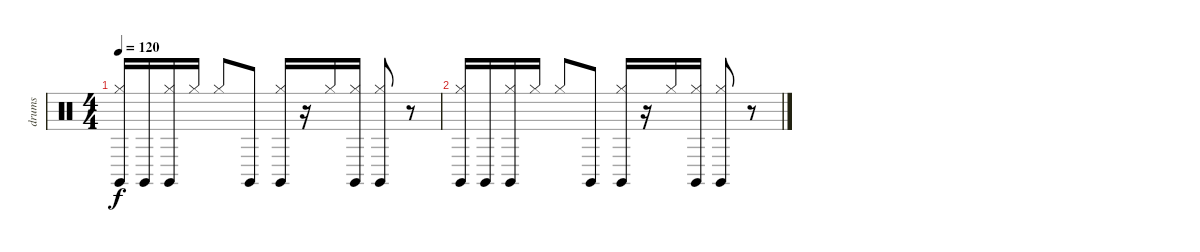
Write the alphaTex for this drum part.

\track ("drums" "drums") {instrument percussion}
\staff {score}
\articulation defaults
\ts (4 4)
\tempo 120
\clef neutral
\ks c
("Claves (hit)" "Hi-Hat (closed)").16{dy f} "Claves (hit)".16 ("Claves (hit)" "Hi-Hat (closed)").16 "Hi-Hat (closed)".16 "Hi-Hat (closed)".8 "Claves (hit)".8 ("Claves (hit)" "Hi-Hat (closed)").16 r.16 "Hi-Hat (closed)".16 ("Claves (hit)" "Hi-Hat (closed)").16 ("Claves (hit)" "Hi-Hat (closed)").8 r.8 |
("Claves (hit)" "Hi-Hat (closed)").16 "Claves (hit)".16 ("Claves (hit)" "Hi-Hat (closed)").16 "Hi-Hat (closed)".16 "Hi-Hat (closed)".8 "Claves (hit)".8 ("Claves (hit)" "Hi-Hat (closed)").16 r.16 "Hi-Hat (closed)".16 ("Claves (hit)" "Hi-Hat (closed)").16 ("Claves (hit)" "Hi-Hat (closed)").8 r.8
